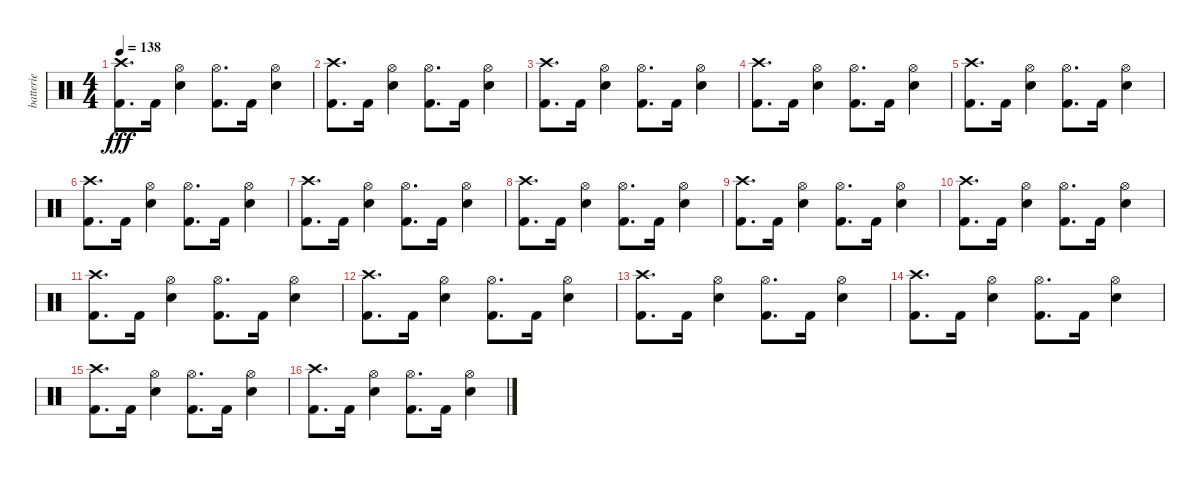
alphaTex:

\track ("batterie" "batterie") {instrument percussion}
\staff {score}
\articulation defaults
\ts (4 4)
\tempo 138
\clef neutral
\ks c
("Crash high (hit)" "Kick (hit) 2").8{d dy fff} "Kick (hit) 2".16 ("Hi-Hat (open)" "Electric Snare (hit)").4 ("Hi-Hat (open)" "Kick (hit) 2").8{d} "Kick (hit) 2".16 ("Hi-Hat (open)" "Electric Snare (hit)").4 |
("Crash high (hit)" "Kick (hit) 2").8{d} "Kick (hit) 2".16 ("Hi-Hat (open)" "Electric Snare (hit)").4 ("Hi-Hat (open)" "Kick (hit) 2").8{d} "Kick (hit) 2".16 ("Hi-Hat (open)" "Electric Snare (hit)").4 |
("Crash high (hit)" "Kick (hit) 2").8{d} "Kick (hit) 2".16 ("Hi-Hat (open)" "Electric Snare (hit)").4 ("Hi-Hat (open)" "Kick (hit) 2").8{d} "Kick (hit) 2".16 ("Hi-Hat (open)" "Electric Snare (hit)").4 |
("Crash high (hit)" "Kick (hit) 2").8{d} "Kick (hit) 2".16 ("Hi-Hat (open)" "Electric Snare (hit)").4 ("Hi-Hat (open)" "Kick (hit) 2").8{d} "Kick (hit) 2".16 ("Hi-Hat (open)" "Electric Snare (hit)").4 |
("Crash high (hit)" "Kick (hit) 2").8{d} "Kick (hit) 2".16 ("Hi-Hat (open)" "Electric Snare (hit)").4 ("Hi-Hat (open)" "Kick (hit) 2").8{d} "Kick (hit) 2".16 ("Hi-Hat (open)" "Electric Snare (hit)").4 |
("Crash high (hit)" "Kick (hit) 2").8{d} "Kick (hit) 2".16 ("Hi-Hat (open)" "Electric Snare (hit)").4 ("Hi-Hat (open)" "Kick (hit) 2").8{d} "Kick (hit) 2".16 ("Hi-Hat (open)" "Electric Snare (hit)").4 |
("Crash high (hit)" "Kick (hit) 2").8{d} "Kick (hit) 2".16 ("Hi-Hat (open)" "Electric Snare (hit)").4 ("Hi-Hat (open)" "Kick (hit) 2").8{d} "Kick (hit) 2".16 ("Hi-Hat (open)" "Electric Snare (hit)").4 |
("Crash high (hit)" "Kick (hit) 2").8{d} "Kick (hit) 2".16 ("Hi-Hat (open)" "Electric Snare (hit)").4 ("Hi-Hat (open)" "Kick (hit) 2").8{d} "Kick (hit) 2".16 ("Hi-Hat (open)" "Electric Snare (hit)").4 |
("Crash high (hit)" "Kick (hit) 2").8{d} "Kick (hit) 2".16 ("Hi-Hat (open)" "Electric Snare (hit)").4 ("Hi-Hat (open)" "Kick (hit) 2").8{d} "Kick (hit) 2".16 ("Hi-Hat (open)" "Electric Snare (hit)").4 |
("Crash high (hit)" "Kick (hit) 2").8{d} "Kick (hit) 2".16 ("Hi-Hat (open)" "Electric Snare (hit)").4 ("Hi-Hat (open)" "Kick (hit) 2").8{d} "Kick (hit) 2".16 ("Hi-Hat (open)" "Electric Snare (hit)").4 |
("Crash high (hit)" "Kick (hit) 2").8{d} "Kick (hit) 2".16 ("Hi-Hat (open)" "Electric Snare (hit)").4 ("Hi-Hat (open)" "Kick (hit) 2").8{d} "Kick (hit) 2".16 ("Hi-Hat (open)" "Electric Snare (hit)").4 |
("Crash high (hit)" "Kick (hit) 2").8{d} "Kick (hit) 2".16 ("Hi-Hat (open)" "Electric Snare (hit)").4 ("Hi-Hat (open)" "Kick (hit) 2").8{d} "Kick (hit) 2".16 ("Hi-Hat (open)" "Electric Snare (hit)").4 |
("Crash high (hit)" "Kick (hit) 2").8{d} "Kick (hit) 2".16 ("Hi-Hat (open)" "Electric Snare (hit)").4 ("Hi-Hat (open)" "Kick (hit) 2").8{d} "Kick (hit) 2".16 ("Hi-Hat (open)" "Electric Snare (hit)").4 |
("Crash high (hit)" "Kick (hit) 2").8{d} "Kick (hit) 2".16 ("Hi-Hat (open)" "Electric Snare (hit)").4 ("Hi-Hat (open)" "Kick (hit) 2").8{d} "Kick (hit) 2".16 ("Hi-Hat (open)" "Electric Snare (hit)").4 |
("Crash high (hit)" "Kick (hit) 2").8{d} "Kick (hit) 2".16 ("Hi-Hat (open)" "Electric Snare (hit)").4 ("Hi-Hat (open)" "Kick (hit) 2").8{d} "Kick (hit) 2".16 ("Hi-Hat (open)" "Electric Snare (hit)").4 |
("Crash high (hit)" "Kick (hit) 2").8{d} "Kick (hit) 2".16 ("Hi-Hat (open)" "Electric Snare (hit)").4 ("Hi-Hat (open)" "Kick (hit) 2").8{d} "Kick (hit) 2".16 ("Hi-Hat (open)" "Electric Snare (hit)").4
